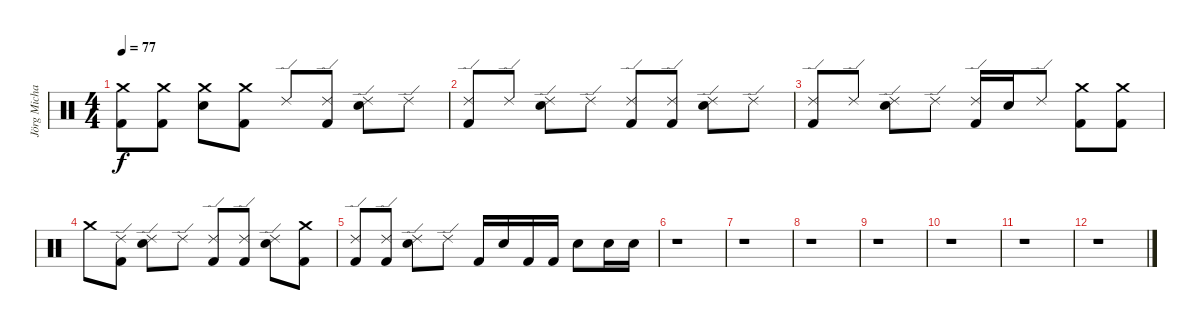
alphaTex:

\track ("Jörg Michael" "Jörg Micha") {instrument percussion}
\staff {score}
\articulation defaults
\ts (4 4)
\tempo 77
\clef neutral
\ks c
("Crash medium (hit)" "Kick (hit) 2").8{dy f} ("Crash medium (hit)" "Kick (hit) 2").8 ("Crash medium (hit)" "Electric Snare (hit)").8 ("Crash medium (hit)" "Kick (hit) 2").8 "Ride (edge) 2".8 ("Ride (edge) 2" "Kick (hit) 2").8 ("Ride (edge) 2" "Electric Snare (hit)").8 "Ride (edge) 2".8 |
("Ride (edge) 2" "Kick (hit) 2").8 "Ride (edge) 2".8 ("Ride (edge) 2" "Electric Snare (hit)").8 "Ride (edge) 2".8 ("Ride (edge) 2" "Kick (hit) 2").8 ("Ride (edge) 2" "Kick (hit) 2").8 ("Ride (edge) 2" "Electric Snare (hit)").8 "Ride (edge) 2".8 |
("Ride (edge) 2" "Kick (hit) 2").8 "Ride (edge) 2".8 ("Ride (edge) 2" "Electric Snare (hit)").8 "Ride (edge) 2".8 ("Ride (edge) 2" "Kick (hit) 2").16 "Electric Snare (hit)".16 "Ride (edge) 2".8 ("Crash medium (hit)" "Kick (hit) 2").8 ("Crash medium (hit)" "Kick (hit) 2").8 |
"Crash medium (hit)".8 ("Ride (edge) 2" "Kick (hit) 2").8 ("Ride (edge) 2" "Electric Snare (hit)").8 "Ride (edge) 2".8 ("Ride (edge) 2" "Kick (hit) 2").8 ("Ride (edge) 2" "Kick (hit) 2").8 ("Ride (edge) 2" "Electric Snare (hit)").8 ("Crash medium (hit)" "Kick (hit) 2").8 |
("Ride (edge) 2" "Kick (hit) 2").8 ("Ride (edge) 2" "Kick (hit) 2").8 ("Ride (edge) 2" "Electric Snare (hit)").8 "Ride (edge) 2".8 "Kick (hit) 2".16 "Electric Snare (hit)".16 "Kick (hit) 2".16 "Kick (hit) 2".16 "Electric Snare (hit)".8 "Electric Snare (hit)".16 "Electric Snare (hit)".16 |
r.1 |
r.1 |
r.1 |
r.1 |
r.1 |
r.1 |
r.1
